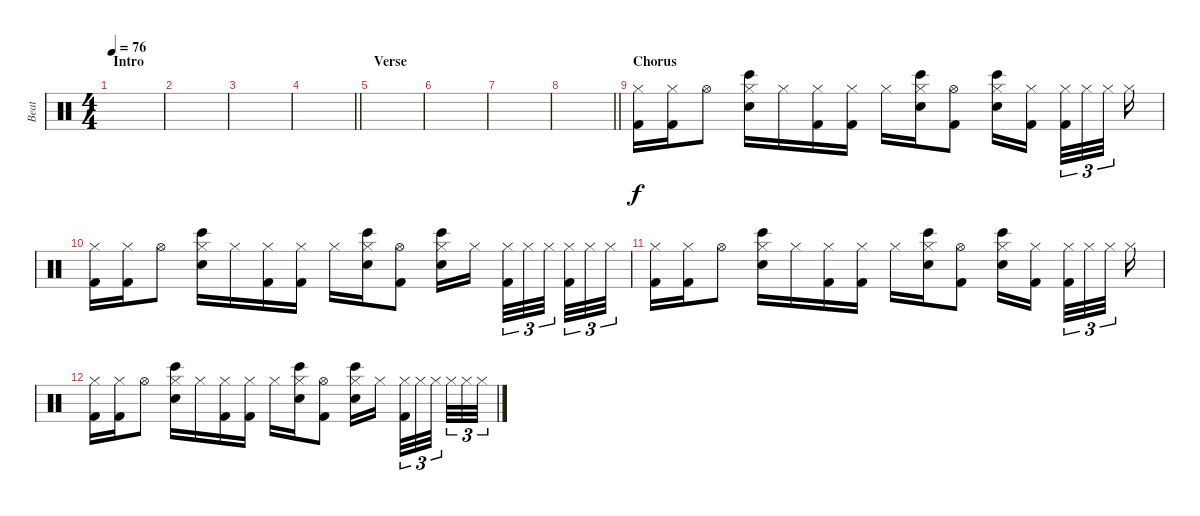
\track ("Beat" "Beat") {instrument percussion}
\staff {score}
\articulation defaults
\ts (4 4)
\section ("" "Intro")
\tempo 76
\clef neutral
\ks c
|
|
|
\barLineRight lightlight
|
\section ("" "Verse")
|
|
|
\barLineRight lightlight
|
\section ("" "Chorus")
("Hi-Hat (closed)" "Kick (hit) 2").16 ("Hi-Hat (closed)" "Kick (hit) 2").16 "Hi-Hat (open)".8 ("Hi-Hat (closed)" "Bongo High (hit)" "Hand Clap (hit)").16 "Hi-Hat (closed)".16 ("Hi-Hat (closed)" "Kick (hit) 2").16 ("Hi-Hat (closed)" "Kick (hit) 2").16 "Hi-Hat (closed)".16 ("Hi-Hat (closed)" "Bongo High (hit)" "Hand Clap (hit)").16 ("Hi-Hat (open)" "Kick (hit) 2").8 ("Hi-Hat (closed)" "Bongo High (hit)" "Hand Clap (hit)").16 ("Hi-Hat (closed)" "Kick (hit) 2").16{beam splitsecondary} ("Hi-Hat (closed)" "Kick (hit) 2").32{tu (3 2)} "Hi-Hat (closed)".32{tu (3 2)} "Hi-Hat (closed)".32{tu (3 2) beam splitsecondary} "Hi-Hat (closed)".16 |
("Hi-Hat (closed)" "Kick (hit) 2").16 ("Hi-Hat (closed)" "Kick (hit) 2").16 "Hi-Hat (open)".8 ("Hi-Hat (closed)" "Bongo High (hit)" "Hand Clap (hit)").16 "Hi-Hat (closed)".16 ("Hi-Hat (closed)" "Kick (hit) 2").16 ("Hi-Hat (closed)" "Kick (hit) 2").16 "Hi-Hat (closed)".16 ("Hi-Hat (closed)" "Bongo High (hit)" "Hand Clap (hit)").16 ("Hi-Hat (open)" "Kick (hit) 2").8 ("Hi-Hat (closed)" "Bongo High (hit)" "Hand Clap (hit)").16 "Hi-Hat (closed)".16{beam splitsecondary} ("Hi-Hat (closed)" "Kick (hit) 2").32{tu (3 2)} "Hi-Hat (closed)".32{tu (3 2)} "Hi-Hat (closed)".32{tu (3 2) beam splitsecondary} ("Hi-Hat (closed)" "Kick (hit) 2").32{tu (3 2)} "Hi-Hat (closed)".32{tu (3 2)} "Hi-Hat (closed)".32{tu (3 2)} |
("Hi-Hat (closed)" "Kick (hit) 2").16 ("Hi-Hat (closed)" "Kick (hit) 2").16 "Hi-Hat (open)".8 ("Hi-Hat (closed)" "Bongo High (hit)" "Hand Clap (hit)").16 "Hi-Hat (closed)".16 ("Hi-Hat (closed)" "Kick (hit) 2").16 ("Hi-Hat (closed)" "Kick (hit) 2").16 "Hi-Hat (closed)".16 ("Hi-Hat (closed)" "Bongo High (hit)" "Hand Clap (hit)").16 ("Hi-Hat (open)" "Kick (hit) 2").8 ("Hi-Hat (closed)" "Bongo High (hit)" "Hand Clap (hit)").16 ("Hi-Hat (closed)" "Kick (hit) 2").16{beam splitsecondary} ("Hi-Hat (closed)" "Kick (hit) 2").32{tu (3 2)} "Hi-Hat (closed)".32{tu (3 2)} "Hi-Hat (closed)".32{tu (3 2) beam splitsecondary} "Hi-Hat (closed)".16 |
("Hi-Hat (closed)" "Kick (hit) 2").16 ("Hi-Hat (closed)" "Kick (hit) 2").16 "Hi-Hat (open)".8 ("Hi-Hat (closed)" "Bongo High (hit)" "Hand Clap (hit)").16 "Hi-Hat (closed)".16 ("Hi-Hat (closed)" "Kick (hit) 2").16 ("Hi-Hat (closed)" "Kick (hit) 2").16 "Hi-Hat (closed)".16 ("Hi-Hat (closed)" "Bongo High (hit)" "Hand Clap (hit)").16 ("Hi-Hat (open)" "Kick (hit) 2").8 ("Hi-Hat (closed)" "Bongo High (hit)" "Hand Clap (hit)").16 "Hi-Hat (closed)".16{beam splitsecondary} ("Hi-Hat (closed)" "Kick (hit) 2").32{tu (3 2)} "Hi-Hat (closed)".32{tu (3 2)} "Hi-Hat (closed)".32{tu (3 2) beam splitsecondary} "Hi-Hat (closed)".32{tu (3 2)} "Hi-Hat (closed)".32{tu (3 2)} "Hi-Hat (closed)".32{tu (3 2)}
